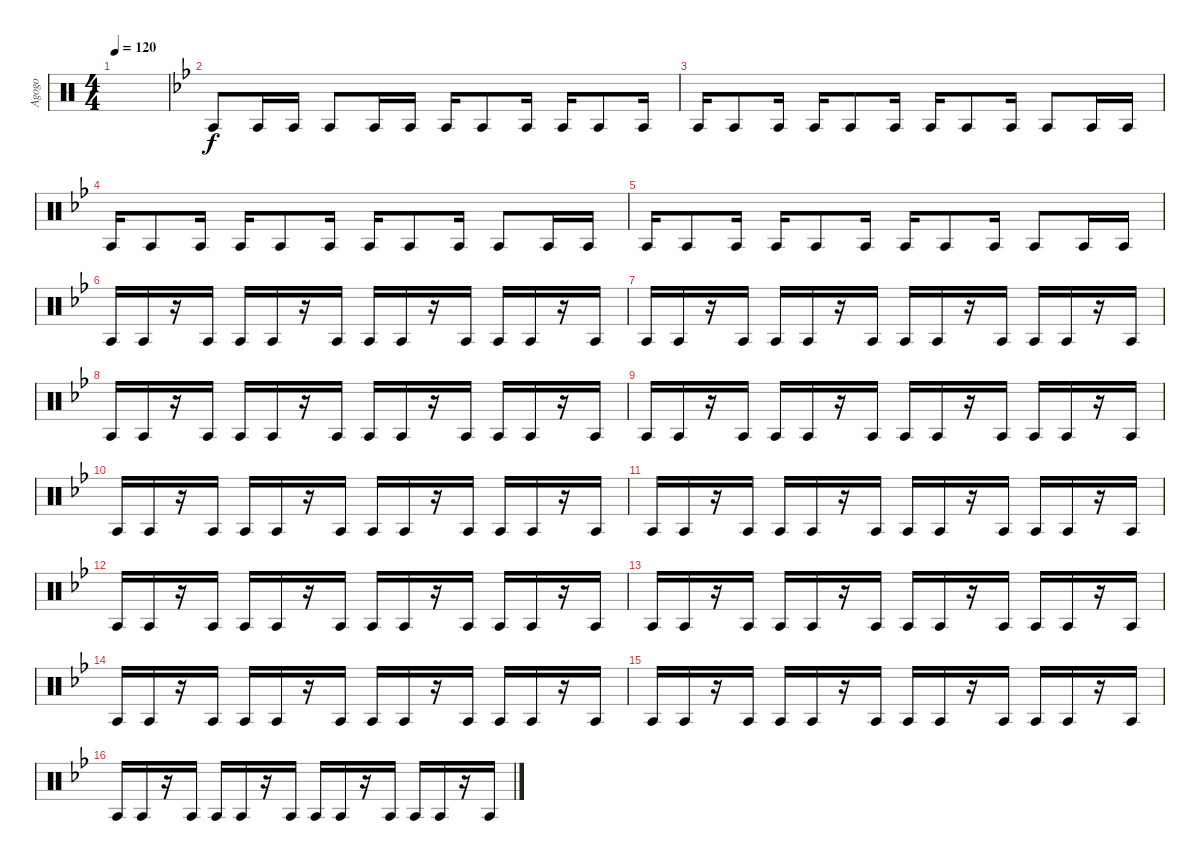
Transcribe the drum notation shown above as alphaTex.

\track ("Agogo" "Agogo") {instrument percussion}
\staff {score}
\articulation defaults
\ts (4 4)
\tempo 120
\clef neutral
\ks c
|
\ks bb "Agogo tow (hit)".8 "Agogo tow (hit)".16 "Agogo tow (hit)".16 "Agogo tow (hit)".8 "Agogo tow (hit)".16 "Agogo tow (hit)".16 "Agogo tow (hit)".16 "Agogo tow (hit)".8 "Agogo tow (hit)".16 "Agogo tow (hit)".16 "Agogo tow (hit)".8 "Agogo tow (hit)".16
|
"Agogo tow (hit)".16 "Agogo tow (hit)".8 "Agogo tow (hit)".16 "Agogo tow (hit)".16 "Agogo tow (hit)".8 "Agogo tow (hit)".16 "Agogo tow (hit)".16 "Agogo tow (hit)".8 "Agogo tow (hit)".16 "Agogo tow (hit)".8 "Agogo tow (hit)".16 "Agogo tow (hit)".16 |
"Agogo tow (hit)".16 "Agogo tow (hit)".8 "Agogo tow (hit)".16 "Agogo tow (hit)".16 "Agogo tow (hit)".8 "Agogo tow (hit)".16 "Agogo tow (hit)".16 "Agogo tow (hit)".8 "Agogo tow (hit)".16 "Agogo tow (hit)".8 "Agogo tow (hit)".16 "Agogo tow (hit)".16 |
"Agogo tow (hit)".16 "Agogo tow (hit)".8 "Agogo tow (hit)".16 "Agogo tow (hit)".16 "Agogo tow (hit)".8 "Agogo tow (hit)".16 "Agogo tow (hit)".16 "Agogo tow (hit)".8 "Agogo tow (hit)".16 "Agogo tow (hit)".8 "Agogo tow (hit)".16 "Agogo tow (hit)".16 |
"Agogo tow (hit)".16 "Agogo tow (hit)".16 r.16 "Agogo tow (hit)".16 "Agogo tow (hit)".16 "Agogo tow (hit)".16 r.16 "Agogo tow (hit)".16 "Agogo tow (hit)".16 "Agogo tow (hit)".16 r.16 "Agogo tow (hit)".16 "Agogo tow (hit)".16 "Agogo tow (hit)".16 r.16 "Agogo tow (hit)".16 |
"Agogo tow (hit)".16 "Agogo tow (hit)".16 r.16 "Agogo tow (hit)".16 "Agogo tow (hit)".16 "Agogo tow (hit)".16 r.16 "Agogo tow (hit)".16 "Agogo tow (hit)".16 "Agogo tow (hit)".16 r.16 "Agogo tow (hit)".16 "Agogo tow (hit)".16 "Agogo tow (hit)".16 r.16 "Agogo tow (hit)".16 |
"Agogo tow (hit)".16 "Agogo tow (hit)".16 r.16 "Agogo tow (hit)".16 "Agogo tow (hit)".16 "Agogo tow (hit)".16 r.16 "Agogo tow (hit)".16 "Agogo tow (hit)".16 "Agogo tow (hit)".16 r.16 "Agogo tow (hit)".16 "Agogo tow (hit)".16 "Agogo tow (hit)".16 r.16 "Agogo tow (hit)".16 |
"Agogo tow (hit)".16 "Agogo tow (hit)".16 r.16 "Agogo tow (hit)".16 "Agogo tow (hit)".16 "Agogo tow (hit)".16 r.16 "Agogo tow (hit)".16 "Agogo tow (hit)".16 "Agogo tow (hit)".16 r.16 "Agogo tow (hit)".16 "Agogo tow (hit)".16 "Agogo tow (hit)".16 r.16 "Agogo tow (hit)".16 |
"Agogo tow (hit)".16 "Agogo tow (hit)".16 r.16 "Agogo tow (hit)".16 "Agogo tow (hit)".16 "Agogo tow (hit)".16 r.16 "Agogo tow (hit)".16 "Agogo tow (hit)".16 "Agogo tow (hit)".16 r.16 "Agogo tow (hit)".16 "Agogo tow (hit)".16 "Agogo tow (hit)".16 r.16 "Agogo tow (hit)".16 |
"Agogo tow (hit)".16 "Agogo tow (hit)".16 r.16 "Agogo tow (hit)".16 "Agogo tow (hit)".16 "Agogo tow (hit)".16 r.16 "Agogo tow (hit)".16 "Agogo tow (hit)".16 "Agogo tow (hit)".16 r.16 "Agogo tow (hit)".16 "Agogo tow (hit)".16 "Agogo tow (hit)".16 r.16 "Agogo tow (hit)".16 |
"Agogo tow (hit)".16 "Agogo tow (hit)".16 r.16 "Agogo tow (hit)".16 "Agogo tow (hit)".16 "Agogo tow (hit)".16 r.16 "Agogo tow (hit)".16 "Agogo tow (hit)".16 "Agogo tow (hit)".16 r.16 "Agogo tow (hit)".16 "Agogo tow (hit)".16 "Agogo tow (hit)".16 r.16 "Agogo tow (hit)".16 |
"Agogo tow (hit)".16 "Agogo tow (hit)".16 r.16 "Agogo tow (hit)".16 "Agogo tow (hit)".16 "Agogo tow (hit)".16 r.16 "Agogo tow (hit)".16 "Agogo tow (hit)".16 "Agogo tow (hit)".16 r.16 "Agogo tow (hit)".16 "Agogo tow (hit)".16 "Agogo tow (hit)".16 r.16 "Agogo tow (hit)".16 |
"Agogo tow (hit)".16 "Agogo tow (hit)".16 r.16 "Agogo tow (hit)".16 "Agogo tow (hit)".16 "Agogo tow (hit)".16 r.16 "Agogo tow (hit)".16 "Agogo tow (hit)".16 "Agogo tow (hit)".16 r.16 "Agogo tow (hit)".16 "Agogo tow (hit)".16 "Agogo tow (hit)".16 r.16 "Agogo tow (hit)".16 |
"Agogo tow (hit)".16 "Agogo tow (hit)".16 r.16 "Agogo tow (hit)".16 "Agogo tow (hit)".16 "Agogo tow (hit)".16 r.16 "Agogo tow (hit)".16 "Agogo tow (hit)".16 "Agogo tow (hit)".16 r.16 "Agogo tow (hit)".16 "Agogo tow (hit)".16 "Agogo tow (hit)".16 r.16 "Agogo tow (hit)".16 |
"Agogo tow (hit)".16 "Agogo tow (hit)".16 r.16 "Agogo tow (hit)".16 "Agogo tow (hit)".16 "Agogo tow (hit)".16 r.16 "Agogo tow (hit)".16 "Agogo tow (hit)".16 "Agogo tow (hit)".16 r.16 "Agogo tow (hit)".16 "Agogo tow (hit)".16 "Agogo tow (hit)".16 r.16 "Agogo tow (hit)".16
